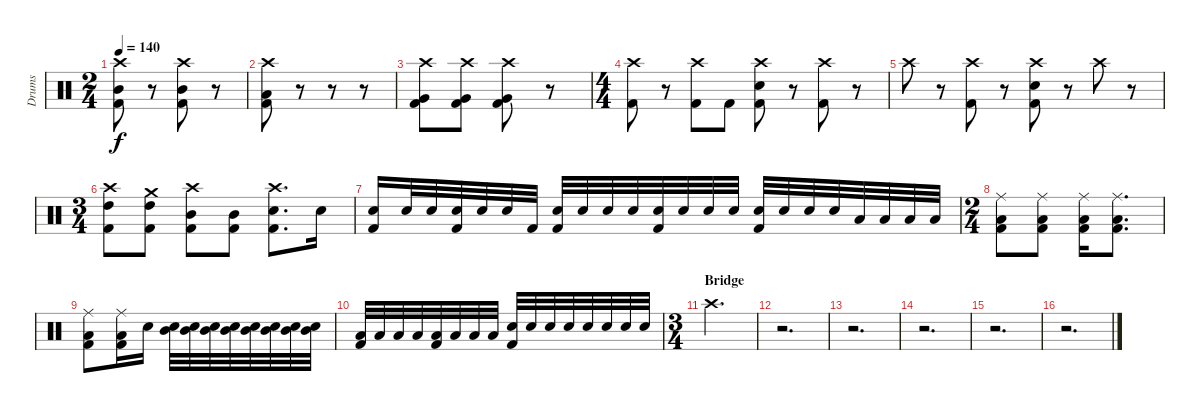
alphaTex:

\track ("Drums" "Drums") {instrument percussion}
\staff {score}
\articulation defaults
\ts (2 4)
\tempo 140
\clef neutral
\ks c
("Crash high (hit)" "Mid Tom (hit)" "Kick (hit) 2").8{dy f} r.8 ("Crash high (hit)" "Mid Tom (hit)" "Kick (hit) 2").8 r.8 |
("Crash high (hit)" "Low Tom (hit)" "Kick (hit) 2").8 r.8 r.8 r.8 |
("Crash high (hit)" "Very Low Tom (hit)" "Kick (hit) 2").8 ("Crash high (hit)" "Very Low Tom (hit)" "Kick (hit) 2").8 ("Crash high (hit)" "Very Low Tom (hit)" "Kick (hit) 2").8 r.8 |
\ts (4 4)
("Crash high (hit)" "Kick (hit) 2").8 r.8 ("Crash high (hit)" "Kick (hit) 2").8 "Kick (hit) 2".8 ("Crash high (hit)" "Snare (hit) 2" "Kick (hit) 2").8 r.8 ("Crash high (hit)" "Kick (hit) 2").8 r.8 |
"Crash high (hit)".8 r.8 ("Crash high (hit)" "Kick (hit) 2").8 r.8 ("Crash high (hit)" "Snare (hit) 2" "Kick (hit) 2").8 r.8 "Crash high (hit)".8 r.8 |
\ts (3 4)
("Crash high (hit)" "High Tom (hit)" "Kick (hit) 2").8 ("Crash medium (hit)" "High Tom (hit)" "Kick (hit) 2").8 ("Crash high (hit)" "Mid Tom (hit)" "Kick (hit) 2").8 ("Mid Tom (hit)" "Kick (hit) 2").8 ("Crash high (hit)" "Snare (hit) 2" "Kick (hit) 2").8{d} "Snare (hit) 2".16 |
("Snare (hit) 2" "Kick (hit) 2").16 "Snare (hit) 2".32 "Snare (hit) 2".32 ("Snare (hit) 2" "Kick (hit) 2").32 "Snare (hit) 2".32 "Snare (hit) 2".32 "Kick (hit) 2".32 ("Snare (hit) 2" "Kick (hit) 2").32 "Snare (hit) 2".32 "Snare (hit) 2".32 "Snare (hit) 2".32 ("Snare (hit) 2" "Kick (hit) 2").32 "Snare (hit) 2".32 "Snare (hit) 2".32 "Snare (hit) 2".32 ("Snare (hit) 2" "Kick (hit) 2").32 "Snare (hit) 2".32 "Snare (hit) 2".32 "Snare (hit) 2".32 "Low Tom (hit)".32 "Low Tom (hit)".32 "Low Tom (hit)".32 "Low Tom (hit)".32 |
\ts (2 4)
("Ride (middle)" "Low Tom (hit)" "Kick (hit) 2").8 ("Ride (middle)" "Low Tom (hit)" "Kick (hit) 2").8 ("Ride (middle)" "Low Tom (hit)" "Kick (hit) 2").16 ("Ride (middle)" "Low Tom (hit)" "Kick (hit) 2").8{d} |
("Ride (middle)" "Low Tom (hit)" "Kick (hit) 2").8 ("Ride (middle)" "Low Tom (hit)" "Kick (hit) 2").16 "Snare (hit) 2".16 ("Mid Tom (hit)" "Snare (hit) 2").32 ("Mid Tom (hit)" "Snare (hit) 2").32 ("Mid Tom (hit)" "Snare (hit) 2").32 ("Mid Tom (hit)" "Snare (hit) 2").32 ("Mid Tom (hit)" "Snare (hit) 2").32 ("Mid Tom (hit)" "Snare (hit) 2").32 ("Mid Tom (hit)" "Snare (hit) 2").32 ("Mid Tom (hit)" "Snare (hit) 2").32 |
("Low Tom (hit)" "Kick (hit) 2").32 "Low Tom (hit)".32 "Low Tom (hit)".32 "Low Tom (hit)".32 ("Low Tom (hit)" "Kick (hit) 2").32 "Low Tom (hit)".32 "Low Tom (hit)".32 "Low Tom (hit)".32 ("Snare (hit) 2" "Kick (hit) 2").32 "Snare (hit) 2".32 "Snare (hit) 2".32 "Snare (hit) 2".32 "Snare (hit) 2".32 "Snare (hit) 2".32 "Snare (hit) 2".32 "Snare (hit) 2".32 |
\ts (3 4)
\section ("" "Bridge")
"Crash high (hit)".2{d} |
r.2{d} |
r.2{d} |
r.2{d} |
r.2{d} |
r.2{d}
